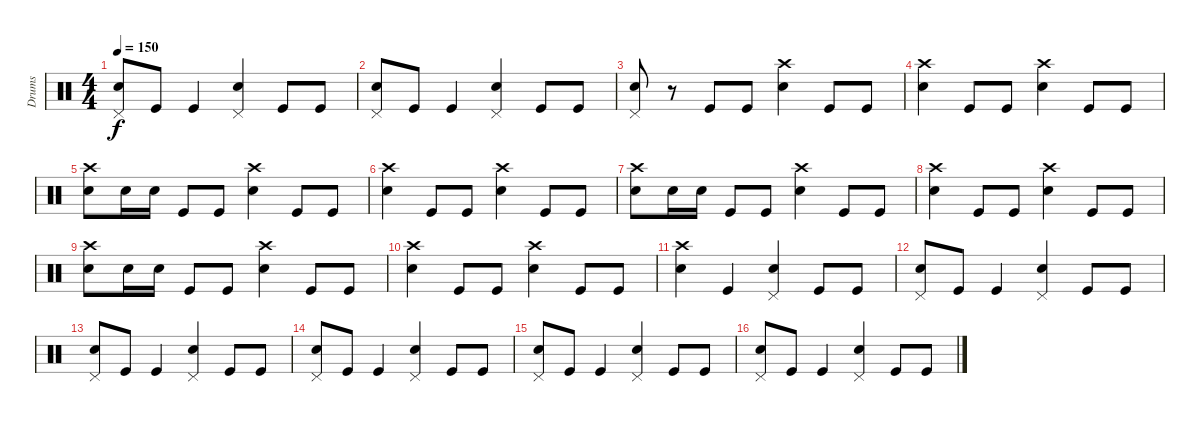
\track ("Drums" "Drums") {instrument percussion}
\staff {score}
\articulation defaults
\ts (4 4)
\tempo 150
\clef neutral
\ks c
("Snare (hit) 2" "Pedal Hi-Hat (hit)").8{dy f} "Kick (hit)".8 "Kick (hit)".4 ("Snare (hit) 2" "Pedal Hi-Hat (hit)").4 "Kick (hit)".8 "Kick (hit)".8 |
("Snare (hit) 2" "Pedal Hi-Hat (hit)").8 "Kick (hit)".8 "Kick (hit)".4 ("Snare (hit) 2" "Pedal Hi-Hat (hit)").4 "Kick (hit)".8 "Kick (hit)".8 |
("Snare (hit) 2" "Pedal Hi-Hat (hit)").8 r.8 "Kick (hit)".8 "Kick (hit)".8 ("Snare (hit) 2" "Crash high (hit)").4 "Kick (hit)".8 "Kick (hit)".8 |
("Snare (hit) 2" "Crash high (hit)").4 "Kick (hit)".8 "Kick (hit)".8 ("Snare (hit) 2" "Crash high (hit)").4 "Kick (hit)".8 "Kick (hit)".8 |
("Snare (hit) 2" "Crash high (hit)").8 "Snare (hit) 2".16 "Snare (hit) 2".16 "Kick (hit)".8 "Kick (hit)".8 ("Snare (hit) 2" "Crash high (hit)").4 "Kick (hit)".8 "Kick (hit)".8 |
("Snare (hit) 2" "Crash high (hit)").4 "Kick (hit)".8 "Kick (hit)".8 ("Snare (hit) 2" "Crash high (hit)").4 "Kick (hit)".8 "Kick (hit)".8 |
("Snare (hit) 2" "Crash high (hit)").8 "Snare (hit) 2".16 "Snare (hit) 2".16 "Kick (hit)".8 "Kick (hit)".8 ("Snare (hit) 2" "Crash high (hit)").4 "Kick (hit)".8 "Kick (hit)".8 |
("Snare (hit) 2" "Crash high (hit)").4 "Kick (hit)".8 "Kick (hit)".8 ("Snare (hit) 2" "Crash high (hit)").4 "Kick (hit)".8 "Kick (hit)".8 |
("Snare (hit) 2" "Crash high (hit)").8 "Snare (hit) 2".16 "Snare (hit) 2".16 "Kick (hit)".8 "Kick (hit)".8 ("Snare (hit) 2" "Crash high (hit)").4 "Kick (hit)".8 "Kick (hit)".8 |
("Snare (hit) 2" "Crash high (hit)").4 "Kick (hit)".8 "Kick (hit)".8 ("Snare (hit) 2" "Crash high (hit)").4 "Kick (hit)".8 "Kick (hit)".8 |
("Snare (hit) 2" "Crash high (hit)").4 "Kick (hit)".4 ("Snare (hit) 2" "Pedal Hi-Hat (hit)").4 "Kick (hit)".8 "Kick (hit)".8 |
("Snare (hit) 2" "Pedal Hi-Hat (hit)").8 "Kick (hit)".8 "Kick (hit)".4 ("Snare (hit) 2" "Pedal Hi-Hat (hit)").4 "Kick (hit)".8 "Kick (hit)".8 |
("Snare (hit) 2" "Pedal Hi-Hat (hit)").8 "Kick (hit)".8 "Kick (hit)".4 ("Snare (hit) 2" "Pedal Hi-Hat (hit)").4 "Kick (hit)".8 "Kick (hit)".8 |
("Snare (hit) 2" "Pedal Hi-Hat (hit)").8 "Kick (hit)".8 "Kick (hit)".4 ("Snare (hit) 2" "Pedal Hi-Hat (hit)").4 "Kick (hit)".8 "Kick (hit)".8 |
("Snare (hit) 2" "Pedal Hi-Hat (hit)").8 "Kick (hit)".8 "Kick (hit)".4 ("Snare (hit) 2" "Pedal Hi-Hat (hit)").4 "Kick (hit)".8 "Kick (hit)".8 |
("Snare (hit) 2" "Pedal Hi-Hat (hit)").8 "Kick (hit)".8 "Kick (hit)".4 ("Snare (hit) 2" "Pedal Hi-Hat (hit)").4 "Kick (hit)".8 "Kick (hit)".8
